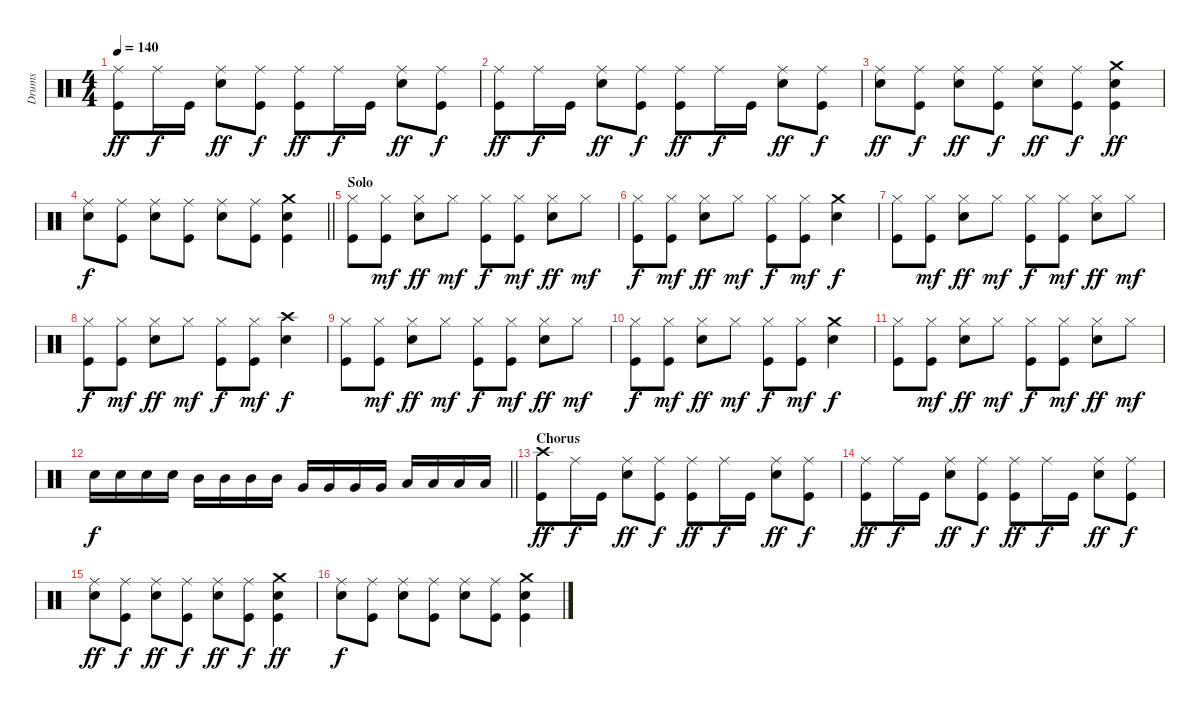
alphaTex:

\track ("Drums" "Drums") {instrument percussion}
\staff {score}
\articulation defaults
\ts (4 4)
\tempo 140
\clef neutral
\ks c
("Ride (middle)" "Kick (hit)").8{dy ff} "Ride (middle)".16{dy f} "Kick (hit)".16 ("Ride (middle)" "Snare (hit) 2").8{dy ff} ("Ride (middle)" "Kick (hit)").8{dy f} ("Ride (middle)" "Kick (hit)").8{dy ff} "Ride (middle)".16{dy f} "Kick (hit)".16 ("Ride (middle)" "Snare (hit) 2").8{dy ff} ("Ride (middle)" "Kick (hit)").8{dy f} |
("Ride (middle)" "Kick (hit)").8{dy ff} "Ride (middle)".16{dy f} "Kick (hit)".16 ("Ride (middle)" "Snare (hit) 2").8{dy ff} ("Ride (middle)" "Kick (hit)").8{dy f} ("Ride (middle)" "Kick (hit)").8{dy ff} "Ride (middle)".16{dy f} "Kick (hit)".16 ("Ride (middle)" "Snare (hit) 2").8{dy ff} ("Ride (middle)" "Kick (hit)").8{dy f} |
("Ride (middle)" "Snare (hit) 2").8{dy ff} ("Ride (middle)" "Kick (hit)").8{dy f} ("Ride (middle)" "Snare (hit) 2").8{dy ff} ("Ride (middle)" "Kick (hit)").8{dy f} ("Ride (middle)" "Snare (hit) 2").8{dy ff} ("Ride (middle)" "Kick (hit)").8{dy f} ("Crash medium (hit)" "Snare (hit) 2" "Kick (hit)").4{dy ff} |
\barLineRight lightlight
("Ride (middle)" "Snare (hit) 2").8{dy f} ("Ride (middle)" "Kick (hit)").8 ("Ride (middle)" "Snare (hit) 2").8 ("Ride (middle)" "Kick (hit)").8 ("Ride (middle)" "Snare (hit) 2").8 ("Ride (middle)" "Kick (hit)").8 ("Crash medium (hit)" "Snare (hit) 2" "Kick (hit)").4 |
\section ("" "Solo")
("Hi-Hat (closed)" "Kick (hit)").8 ("Hi-Hat (closed)" "Kick (hit)").8{dy mf} ("Snare (hit) 2" "Hi-Hat (closed)").8{dy ff} "Hi-Hat (closed)".8{dy mf} ("Hi-Hat (closed)" "Kick (hit)").8{dy f} ("Hi-Hat (closed)" "Kick (hit)").8{dy mf} ("Snare (hit) 2" "Hi-Hat (closed)").8{dy ff} "Hi-Hat (closed)".8{dy mf} |
("Hi-Hat (closed)" "Kick (hit)").8{dy f} ("Hi-Hat (closed)" "Kick (hit)").8{dy mf} ("Snare (hit) 2" "Hi-Hat (closed)").8{dy ff} "Hi-Hat (closed)".8{dy mf} ("Hi-Hat (closed)" "Kick (hit)").8{dy f} ("Hi-Hat (closed)" "Kick (hit)").8{dy mf} ("Crash medium (hit)" "Snare (hit) 2").4{dy f} |
("Hi-Hat (closed)" "Kick (hit)").8 ("Hi-Hat (closed)" "Kick (hit)").8{dy mf} ("Snare (hit) 2" "Hi-Hat (closed)").8{dy ff} "Hi-Hat (closed)".8{dy mf} ("Hi-Hat (closed)" "Kick (hit)").8{dy f} ("Hi-Hat (closed)" "Kick (hit)").8{dy mf} ("Snare (hit) 2" "Hi-Hat (closed)").8{dy ff} "Hi-Hat (closed)".8{dy mf} |
("Hi-Hat (closed)" "Kick (hit)").8{dy f} ("Hi-Hat (closed)" "Kick (hit)").8{dy mf} ("Snare (hit) 2" "Hi-Hat (closed)").8{dy ff} "Hi-Hat (closed)".8{dy mf} ("Hi-Hat (closed)" "Kick (hit)").8{dy f} ("Hi-Hat (closed)" "Kick (hit)").8{dy mf} ("Crash high (hit)" "Snare (hit) 2").4{dy f} |
("Hi-Hat (closed)" "Kick (hit)").8 ("Hi-Hat (closed)" "Kick (hit)").8{dy mf} ("Snare (hit) 2" "Hi-Hat (closed)").8{dy ff} "Hi-Hat (closed)".8{dy mf} ("Hi-Hat (closed)" "Kick (hit)").8{dy f} ("Hi-Hat (closed)" "Kick (hit)").8{dy mf} ("Snare (hit) 2" "Hi-Hat (closed)").8{dy ff} "Hi-Hat (closed)".8{dy mf} |
("Hi-Hat (closed)" "Kick (hit)").8{dy f} ("Hi-Hat (closed)" "Kick (hit)").8{dy mf} ("Snare (hit) 2" "Hi-Hat (closed)").8{dy ff} "Hi-Hat (closed)".8{dy mf} ("Hi-Hat (closed)" "Kick (hit)").8{dy f} ("Hi-Hat (closed)" "Kick (hit)").8{dy mf} ("Crash medium (hit)" "Snare (hit) 2").4{dy f} |
("Hi-Hat (closed)" "Kick (hit)").8 ("Hi-Hat (closed)" "Kick (hit)").8{dy mf} ("Snare (hit) 2" "Hi-Hat (closed)").8{dy ff} "Hi-Hat (closed)".8{dy mf} ("Hi-Hat (closed)" "Kick (hit)").8{dy f} ("Hi-Hat (closed)" "Kick (hit)").8{dy mf} ("Snare (hit) 2" "Hi-Hat (closed)").8{dy ff} "Hi-Hat (closed)".8{dy mf} |
\barLineRight lightlight "Snare (hit) 2".16{dy f} "Snare (hit) 2".16 "Snare (hit) 2".16 "Snare (hit) 2".16 "Mid Tom (hit)".16 "Mid Tom (hit)".16 "Mid Tom (hit)".16 "Mid Tom (hit)".16 "Very Low Tom (hit)".16 "Very Low Tom (hit)".16 "Very Low Tom (hit)".16 "Very Low Tom (hit)".16 "Low Floor Tom (hit)".16 "Low Floor Tom (hit)".16 "Low Floor Tom (hit)".16 "Low Floor Tom (hit)".16
|
\section ("" "Chorus")
("Crash high (hit)" "Kick (hit)").8{dy ff} "Ride (middle)".16{dy f} "Kick (hit)".16 ("Ride (middle)" "Snare (hit) 2").8{dy ff} ("Ride (middle)" "Kick (hit)").8{dy f} ("Ride (middle)" "Kick (hit)").8{dy ff} "Ride (middle)".16{dy f} "Kick (hit)".16 ("Ride (middle)" "Snare (hit) 2").8{dy ff} ("Ride (middle)" "Kick (hit)").8{dy f} |
("Ride (middle)" "Kick (hit)").8{dy ff} "Ride (middle)".16{dy f} "Kick (hit)".16 ("Ride (middle)" "Snare (hit) 2").8{dy ff} ("Ride (middle)" "Kick (hit)").8{dy f} ("Ride (middle)" "Kick (hit)").8{dy ff} "Ride (middle)".16{dy f} "Kick (hit)".16 ("Ride (middle)" "Snare (hit) 2").8{dy ff} ("Ride (middle)" "Kick (hit)").8{dy f} |
("Ride (middle)" "Snare (hit) 2").8{dy ff} ("Ride (middle)" "Kick (hit)").8{dy f} ("Ride (middle)" "Snare (hit) 2").8{dy ff} ("Ride (middle)" "Kick (hit)").8{dy f} ("Ride (middle)" "Snare (hit) 2").8{dy ff} ("Ride (middle)" "Kick (hit)").8{dy f} ("Crash medium (hit)" "Snare (hit) 2" "Kick (hit)").4{dy ff} |
("Ride (middle)" "Snare (hit) 2").8{dy f} ("Ride (middle)" "Kick (hit)").8 ("Ride (middle)" "Snare (hit) 2").8 ("Ride (middle)" "Kick (hit)").8 ("Ride (middle)" "Snare (hit) 2").8 ("Ride (middle)" "Kick (hit)").8 ("Crash medium (hit)" "Snare (hit) 2" "Kick (hit)").4
